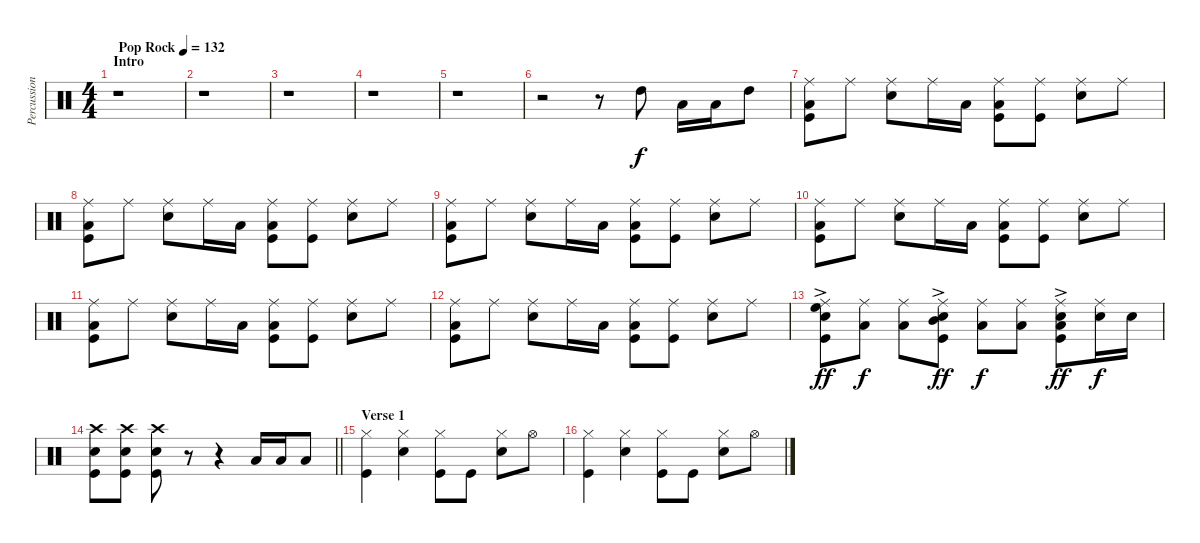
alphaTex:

\track ("Percussion" "Percussion") {instrument percussion}
\staff {score}
\articulation defaults
\ts (4 4)
\section ("" "Intro")
\tempo (132 "Pop Rock")
\clef neutral
\ks c
r.1{dy f} |
r.1 |
r.1 |
r.1 |
r.1 |
r.2 r.8 "High Tom (hit)".8 "Low Tom (hit)".16 "Low Tom (hit)".16 "High Tom (hit)".8 |
("Ride (middle)" "Low Tom (hit)" "Kick (hit)").8 "Ride (middle)".8 ("Ride (middle)" "Snare (hit) 2").8 "Ride (middle)".16 "Low Tom (hit)".16 ("Ride (middle)" "Low Tom (hit)" "Kick (hit)").8 ("Ride (middle)" "Kick (hit)").8 ("Ride (middle)" "Snare (hit) 2").8 "Ride (middle)".8 |
("Ride (middle)" "Low Tom (hit)" "Kick (hit)").8 "Ride (middle)".8 ("Ride (middle)" "Snare (hit) 2").8 "Ride (middle)".16 "Low Tom (hit)".16 ("Ride (middle)" "Low Tom (hit)" "Kick (hit)").8 ("Ride (middle)" "Kick (hit)").8 ("Ride (middle)" "Snare (hit) 2").8 "Ride (middle)".8 |
("Ride (middle)" "Low Tom (hit)" "Kick (hit)").8 "Ride (middle)".8 ("Ride (middle)" "Snare (hit) 2").8 "Ride (middle)".16 "Low Tom (hit)".16 ("Ride (middle)" "Low Tom (hit)" "Kick (hit)").8 ("Ride (middle)" "Kick (hit)").8 ("Ride (middle)" "Snare (hit) 2").8 "Ride (middle)".8 |
("Ride (middle)" "Low Tom (hit)" "Kick (hit)").8 "Ride (middle)".8 ("Ride (middle)" "Snare (hit) 2").8 "Ride (middle)".16 "Low Tom (hit)".16 ("Ride (middle)" "Low Tom (hit)" "Kick (hit)").8 ("Ride (middle)" "Kick (hit)").8 ("Ride (middle)" "Snare (hit) 2").8 "Ride (middle)".8 |
("Ride (middle)" "Low Tom (hit)" "Kick (hit)").8 "Ride (middle)".8 ("Ride (middle)" "Snare (hit) 2").8 "Ride (middle)".16 "Low Tom (hit)".16 ("Ride (middle)" "Low Tom (hit)" "Kick (hit)").8 ("Ride (middle)" "Kick (hit)").8 ("Ride (middle)" "Snare (hit) 2").8 "Ride (middle)".8 |
("Ride (middle)" "Low Tom (hit)" "Kick (hit)").8 "Ride (middle)".8 ("Ride (middle)" "Snare (hit) 2").8 "Ride (middle)".16 "Low Tom (hit)".16 ("Ride (middle)" "Low Tom (hit)" "Kick (hit)").8 ("Ride (middle)" "Kick (hit)").8 ("Ride (middle)" "Snare (hit) 2").8 "Ride (middle)".8 |
("Ride (middle)"{ac} "High Floor Tom (hit)" "Snare (hit) 2" "Kick (hit)").8{dy ff} ("Ride (middle)" "Low Tom (hit)").8{dy f} ("Ride (middle)" "Low Tom (hit)").8 ("Ride (middle)"{ac} "Mid Tom (hit)" "Snare (hit) 2" "Kick (hit)").8{dy ff} ("Ride (middle)" "Low Tom (hit)").8{dy f} ("Ride (middle)" "Low Tom (hit)").8 ("Ride (middle)"{ac} "Low Floor Tom (hit)" "Snare (hit) 2" "Kick (hit)").8{dy ff} ("Ride (middle)" "Snare (hit) 2").16{dy f} "Snare (hit) 2".16 |
\barLineRight lightlight
("Crash high (hit)" "Snare (hit) 2" "Kick (hit)").8 ("Crash high (hit)" "Snare (hit) 2" "Kick (hit)").8 ("Crash high (hit)" "Snare (hit) 2" "Kick (hit)").8 r.8 r.4 "Low Tom (hit)".16 "Low Tom (hit)".16 "Low Tom (hit)".8 |
\section ("" "Verse 1")
("Hi-Hat (closed)" "Kick (hit)").4 ("Hi-Hat (closed)" "Snare (hit) 2").4 ("Hi-Hat (closed)" "Kick (hit)").8 "Kick (hit)".8 ("Hi-Hat (closed)" "Snare (hit) 2").8 "Hi-Hat (open)".8 |
("Hi-Hat (closed)" "Kick (hit)").4 ("Hi-Hat (closed)" "Snare (hit) 2").4 ("Hi-Hat (closed)" "Kick (hit)").8 "Kick (hit)".8 ("Hi-Hat (closed)" "Snare (hit) 2").8 "Hi-Hat (open)".8
